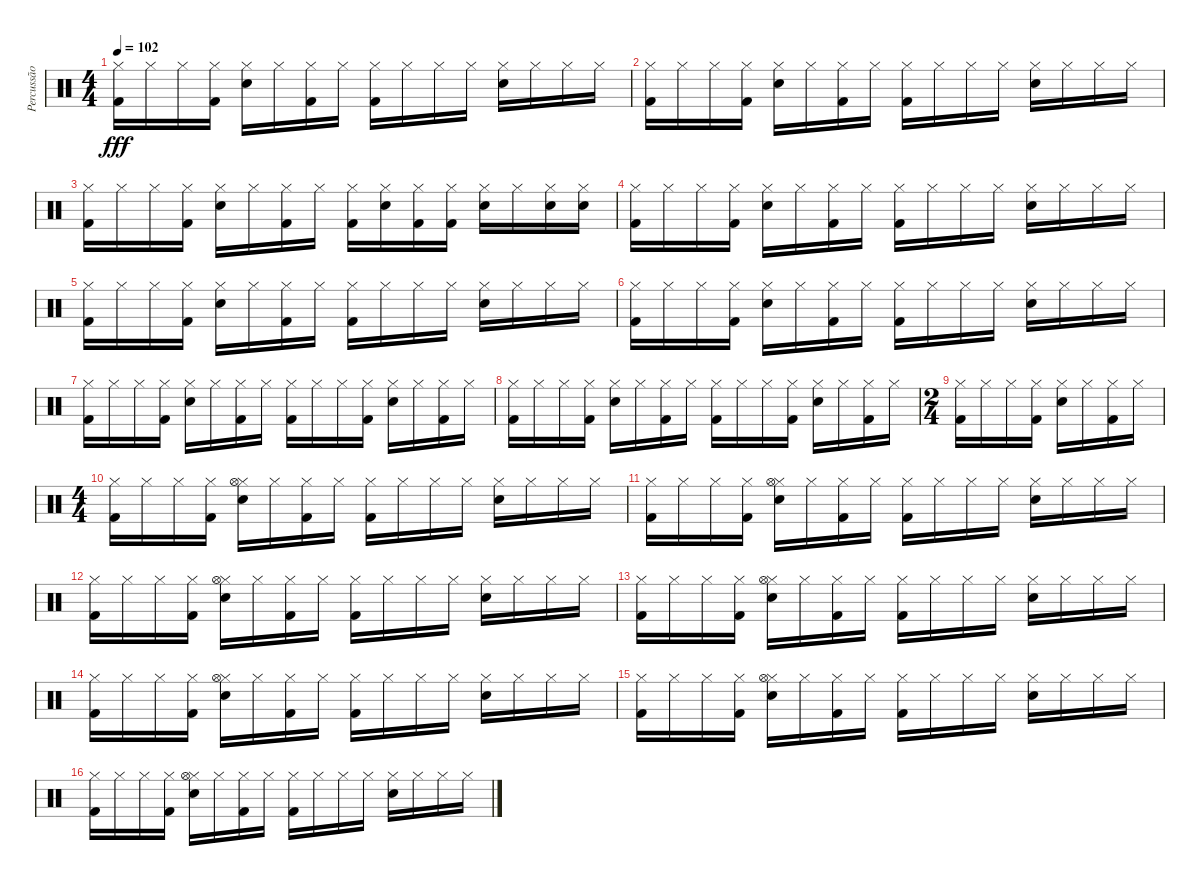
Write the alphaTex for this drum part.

\track ("Percussão" "Percussão") {instrument percussion}
\staff {score}
\articulation defaults
\ts (4 4)
\tempo 102
\clef neutral
\ks c
("Hi-Hat (closed)" "Kick (hit) 2").16{dy fff} "Hi-Hat (closed)".16 "Hi-Hat (closed)".16 ("Hi-Hat (closed)" "Kick (hit) 2").16 ("Hi-Hat (closed)" "Snare (hit) 2").16 "Hi-Hat (closed)".16 ("Hi-Hat (closed)" "Kick (hit) 2").16 "Hi-Hat (closed)".16 ("Hi-Hat (closed)" "Kick (hit) 2").16 "Hi-Hat (closed)".16 "Hi-Hat (closed)".16 "Hi-Hat (closed)".16 ("Hi-Hat (closed)" "Snare (hit) 2").16 "Hi-Hat (closed)".16 "Hi-Hat (closed)".16 "Hi-Hat (closed)".16 |
("Hi-Hat (closed)" "Kick (hit) 2").16 "Hi-Hat (closed)".16 "Hi-Hat (closed)".16 ("Hi-Hat (closed)" "Kick (hit) 2").16 ("Hi-Hat (closed)" "Snare (hit) 2").16 "Hi-Hat (closed)".16 ("Hi-Hat (closed)" "Kick (hit) 2").16 "Hi-Hat (closed)".16 ("Hi-Hat (closed)" "Kick (hit) 2").16 "Hi-Hat (closed)".16 "Hi-Hat (closed)".16 "Hi-Hat (closed)".16 ("Hi-Hat (closed)" "Snare (hit) 2").16 "Hi-Hat (closed)".16 "Hi-Hat (closed)".16 "Hi-Hat (closed)".16 |
("Hi-Hat (closed)" "Kick (hit) 2").16 "Hi-Hat (closed)".16 "Hi-Hat (closed)".16 ("Hi-Hat (closed)" "Kick (hit) 2").16 ("Hi-Hat (closed)" "Snare (hit) 2").16 "Hi-Hat (closed)".16 ("Hi-Hat (closed)" "Kick (hit) 2").16 "Hi-Hat (closed)".16 ("Hi-Hat (closed)" "Kick (hit) 2").16 ("Hi-Hat (closed)" "Snare (hit) 2").16 ("Hi-Hat (closed)" "Kick (hit) 2").16 ("Hi-Hat (closed)" "Kick (hit) 2").16 ("Hi-Hat (closed)" "Snare (hit) 2").16 "Hi-Hat (closed)".16 ("Hi-Hat (closed)" "Snare (hit) 2").16 ("Hi-Hat (closed)" "Snare (hit) 2").16 |
("Hi-Hat (closed)" "Kick (hit) 2").16 "Hi-Hat (closed)".16 "Hi-Hat (closed)".16 ("Hi-Hat (closed)" "Kick (hit) 2").16 ("Hi-Hat (closed)" "Snare (hit) 2").16 "Hi-Hat (closed)".16 ("Hi-Hat (closed)" "Kick (hit) 2").16 "Hi-Hat (closed)".16 ("Hi-Hat (closed)" "Kick (hit) 2").16 "Hi-Hat (closed)".16 "Hi-Hat (closed)".16 "Hi-Hat (closed)".16 ("Hi-Hat (closed)" "Snare (hit) 2").16 "Hi-Hat (closed)".16 "Hi-Hat (closed)".16 "Hi-Hat (closed)".16 |
("Hi-Hat (closed)" "Kick (hit) 2").16 "Hi-Hat (closed)".16 "Hi-Hat (closed)".16 ("Hi-Hat (closed)" "Kick (hit) 2").16 ("Hi-Hat (closed)" "Snare (hit) 2").16 "Hi-Hat (closed)".16 ("Hi-Hat (closed)" "Kick (hit) 2").16 "Hi-Hat (closed)".16 ("Hi-Hat (closed)" "Kick (hit) 2").16 "Hi-Hat (closed)".16 "Hi-Hat (closed)".16 "Hi-Hat (closed)".16 ("Hi-Hat (closed)" "Snare (hit) 2").16 "Hi-Hat (closed)".16 "Hi-Hat (closed)".16 "Hi-Hat (closed)".16 |
("Hi-Hat (closed)" "Kick (hit) 2").16 "Hi-Hat (closed)".16 "Hi-Hat (closed)".16 ("Hi-Hat (closed)" "Kick (hit) 2").16 ("Hi-Hat (closed)" "Snare (hit) 2").16 "Hi-Hat (closed)".16 ("Hi-Hat (closed)" "Kick (hit) 2").16 "Hi-Hat (closed)".16 ("Hi-Hat (closed)" "Kick (hit) 2").16 "Hi-Hat (closed)".16 "Hi-Hat (closed)".16 "Hi-Hat (closed)".16 ("Hi-Hat (closed)" "Snare (hit) 2").16 "Hi-Hat (closed)".16 "Hi-Hat (closed)".16 "Hi-Hat (closed)".16 |
("Hi-Hat (closed)" "Kick (hit) 2").16 "Hi-Hat (closed)".16 "Hi-Hat (closed)".16 ("Hi-Hat (closed)" "Kick (hit) 2").16 ("Hi-Hat (closed)" "Snare (hit) 2").16 "Hi-Hat (closed)".16 ("Hi-Hat (closed)" "Kick (hit) 2").16 "Hi-Hat (closed)".16 ("Hi-Hat (closed)" "Kick (hit) 2").16 "Hi-Hat (closed)".16 "Hi-Hat (closed)".16 ("Hi-Hat (closed)" "Kick (hit) 2").16 ("Hi-Hat (closed)" "Snare (hit) 2").16 "Hi-Hat (closed)".16 ("Hi-Hat (closed)" "Kick (hit) 2").16 "Hi-Hat (closed)".16 |
("Hi-Hat (closed)" "Kick (hit) 2").16 "Hi-Hat (closed)".16 "Hi-Hat (closed)".16 ("Hi-Hat (closed)" "Kick (hit) 2").16 ("Hi-Hat (closed)" "Snare (hit) 2").16 "Hi-Hat (closed)".16 ("Hi-Hat (closed)" "Kick (hit) 2").16 "Hi-Hat (closed)".16 ("Hi-Hat (closed)" "Kick (hit) 2").16 "Hi-Hat (closed)".16 "Hi-Hat (closed)".16 ("Hi-Hat (closed)" "Kick (hit) 2").16 ("Hi-Hat (closed)" "Snare (hit) 2").16 "Hi-Hat (closed)".16 ("Hi-Hat (closed)" "Kick (hit) 2").16 "Hi-Hat (closed)".16 |
\ts (2 4)
("Hi-Hat (closed)" "Kick (hit) 2").16 "Hi-Hat (closed)".16 "Hi-Hat (closed)".16 ("Hi-Hat (closed)" "Kick (hit) 2").16 ("Hi-Hat (closed)" "Snare (hit) 2").16 "Hi-Hat (closed)".16 ("Hi-Hat (closed)" "Kick (hit) 2").16 "Hi-Hat (closed)".16 |
\ts (4 4)
("Hi-Hat (closed)" "Kick (hit) 2").16 "Hi-Hat (closed)".16 "Hi-Hat (closed)".16 ("Hi-Hat (closed)" "Kick (hit) 2").16 ("Hi-Hat (closed)" "Snare (hit) 2" "Hi-Hat (open)").16 "Hi-Hat (closed)".16 ("Hi-Hat (closed)" "Kick (hit) 2").16 "Hi-Hat (closed)".16 ("Hi-Hat (closed)" "Kick (hit) 2").16 "Hi-Hat (closed)".16 "Hi-Hat (closed)".16 "Hi-Hat (closed)".16 ("Hi-Hat (closed)" "Snare (hit) 2").16 "Hi-Hat (closed)".16 "Hi-Hat (closed)".16 "Hi-Hat (closed)".16 |
("Hi-Hat (closed)" "Kick (hit) 2").16 "Hi-Hat (closed)".16 "Hi-Hat (closed)".16 ("Hi-Hat (closed)" "Kick (hit) 2").16 ("Hi-Hat (closed)" "Snare (hit) 2" "Hi-Hat (open)").16 "Hi-Hat (closed)".16 ("Hi-Hat (closed)" "Kick (hit) 2").16 "Hi-Hat (closed)".16 ("Hi-Hat (closed)" "Kick (hit) 2").16 "Hi-Hat (closed)".16 "Hi-Hat (closed)".16 "Hi-Hat (closed)".16 ("Hi-Hat (closed)" "Snare (hit) 2").16 "Hi-Hat (closed)".16 "Hi-Hat (closed)".16 "Hi-Hat (closed)".16 |
("Hi-Hat (closed)" "Kick (hit) 2").16 "Hi-Hat (closed)".16 "Hi-Hat (closed)".16 ("Hi-Hat (closed)" "Kick (hit) 2").16 ("Hi-Hat (closed)" "Snare (hit) 2" "Hi-Hat (open)").16 "Hi-Hat (closed)".16 ("Hi-Hat (closed)" "Kick (hit) 2").16 "Hi-Hat (closed)".16 ("Hi-Hat (closed)" "Kick (hit) 2").16 "Hi-Hat (closed)".16 "Hi-Hat (closed)".16 "Hi-Hat (closed)".16 ("Hi-Hat (closed)" "Snare (hit) 2").16 "Hi-Hat (closed)".16 "Hi-Hat (closed)".16 "Hi-Hat (closed)".16 |
("Hi-Hat (closed)" "Kick (hit) 2").16 "Hi-Hat (closed)".16 "Hi-Hat (closed)".16 ("Hi-Hat (closed)" "Kick (hit) 2").16 ("Hi-Hat (closed)" "Snare (hit) 2" "Hi-Hat (open)").16 "Hi-Hat (closed)".16 ("Hi-Hat (closed)" "Kick (hit) 2").16 "Hi-Hat (closed)".16 ("Hi-Hat (closed)" "Kick (hit) 2").16 "Hi-Hat (closed)".16 "Hi-Hat (closed)".16 "Hi-Hat (closed)".16 ("Hi-Hat (closed)" "Snare (hit) 2").16 "Hi-Hat (closed)".16 "Hi-Hat (closed)".16 "Hi-Hat (closed)".16 |
("Hi-Hat (closed)" "Kick (hit) 2").16 "Hi-Hat (closed)".16 "Hi-Hat (closed)".16 ("Hi-Hat (closed)" "Kick (hit) 2").16 ("Hi-Hat (closed)" "Snare (hit) 2" "Hi-Hat (open)").16 "Hi-Hat (closed)".16 ("Hi-Hat (closed)" "Kick (hit) 2").16 "Hi-Hat (closed)".16 ("Hi-Hat (closed)" "Kick (hit) 2").16 "Hi-Hat (closed)".16 "Hi-Hat (closed)".16 "Hi-Hat (closed)".16 ("Hi-Hat (closed)" "Snare (hit) 2").16 "Hi-Hat (closed)".16 "Hi-Hat (closed)".16 "Hi-Hat (closed)".16 |
("Hi-Hat (closed)" "Kick (hit) 2").16 "Hi-Hat (closed)".16 "Hi-Hat (closed)".16 ("Hi-Hat (closed)" "Kick (hit) 2").16 ("Hi-Hat (closed)" "Snare (hit) 2" "Hi-Hat (open)").16 "Hi-Hat (closed)".16 ("Hi-Hat (closed)" "Kick (hit) 2").16 "Hi-Hat (closed)".16 ("Hi-Hat (closed)" "Kick (hit) 2").16 "Hi-Hat (closed)".16 "Hi-Hat (closed)".16 "Hi-Hat (closed)".16 ("Hi-Hat (closed)" "Snare (hit) 2").16 "Hi-Hat (closed)".16 "Hi-Hat (closed)".16 "Hi-Hat (closed)".16 |
("Hi-Hat (closed)" "Kick (hit) 2").16 "Hi-Hat (closed)".16 "Hi-Hat (closed)".16 ("Hi-Hat (closed)" "Kick (hit) 2").16 ("Hi-Hat (closed)" "Snare (hit) 2" "Hi-Hat (open)").16 "Hi-Hat (closed)".16 ("Hi-Hat (closed)" "Kick (hit) 2").16 "Hi-Hat (closed)".16 ("Hi-Hat (closed)" "Kick (hit) 2").16 "Hi-Hat (closed)".16 "Hi-Hat (closed)".16 "Hi-Hat (closed)".16 ("Hi-Hat (closed)" "Snare (hit) 2").16 "Hi-Hat (closed)".16 "Hi-Hat (closed)".16 "Hi-Hat (closed)".16
